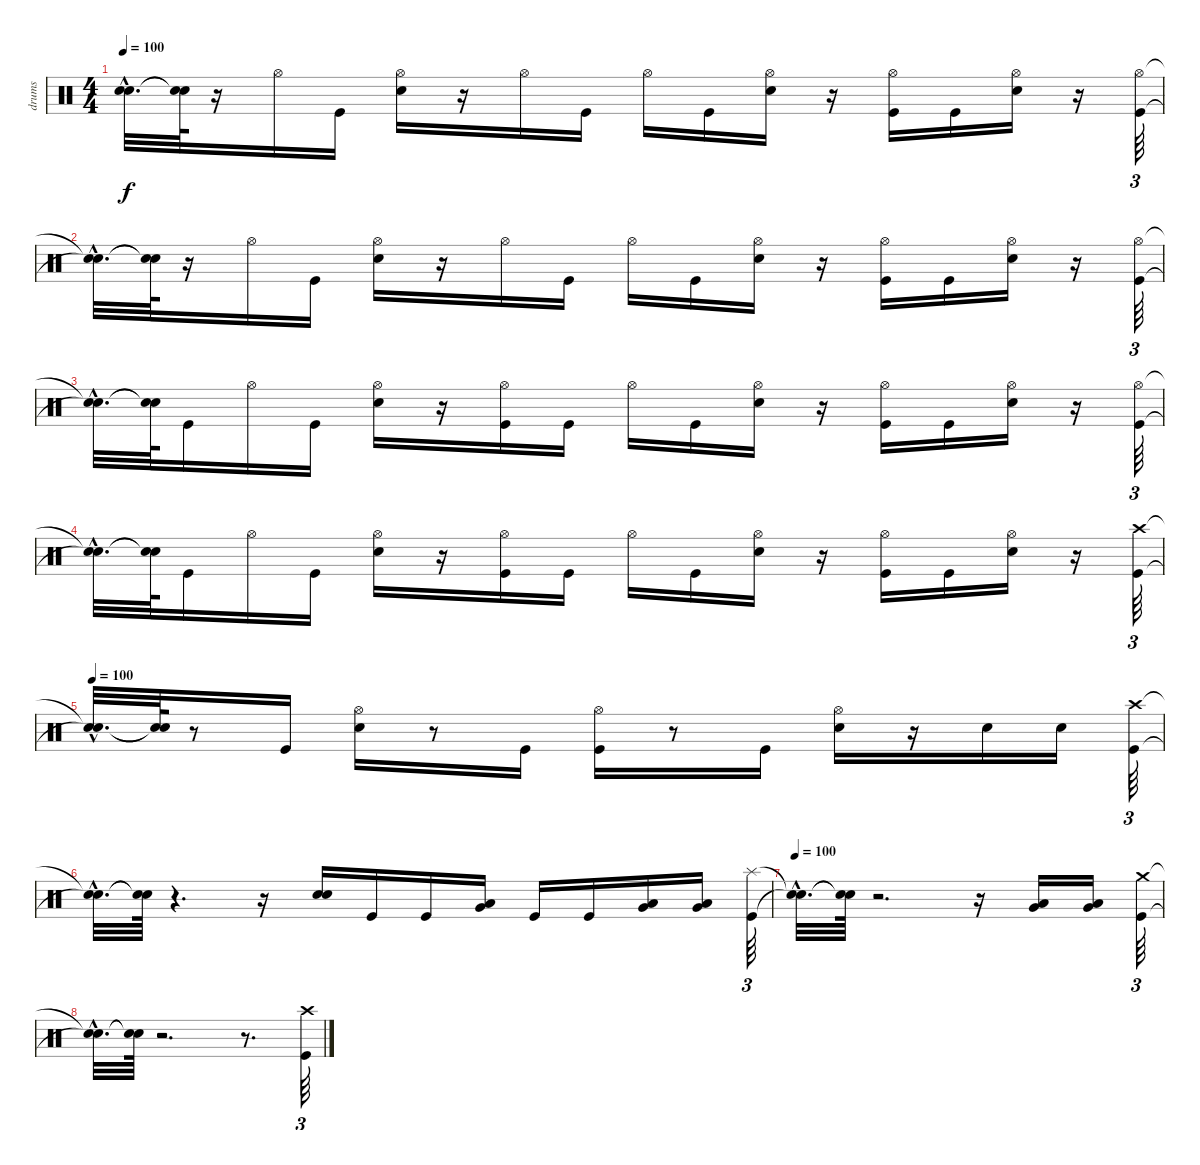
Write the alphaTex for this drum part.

\track ("drums" "drums") {instrument percussion}
\staff {score}
\articulation defaults
\ts (4 4)
\tempo 100
\clef neutral
\ks c
("Snare (hit)"{hac t} "Snare (hit)"{hac t}).32{d dy f} ("Snare (hit)"{t} "Snare (hit)"{t}).64 r.16 "Hi-Hat (open)".16 "Kick (hit)".16 ("Electric Snare (hit)" "Hi-Hat (open)").16 r.16 "Hi-Hat (open)".16 "Kick (hit)".16 "Hi-Hat (open)".16 "Kick (hit)".16 ("Hi-Hat (open)" "Electric Snare (hit)").16 r.16 ("Kick (hit)" "Hi-Hat (open)").16 "Kick (hit)".16 ("Hi-Hat (open)" "Electric Snare (hit)").16 r.16 ("Kick (hit)" "Hi-Hat (open)").64{tu (3 2)} |
("Snare (hit)"{hac t} "Snare (hit)"{hac t}).32{d} ("Snare (hit)"{t} "Snare (hit)"{t}).64 r.16 "Hi-Hat (open)".16 "Kick (hit)".16 ("Hi-Hat (open)" "Electric Snare (hit)").16 r.16 "Hi-Hat (open)".16 "Kick (hit)".16 "Hi-Hat (open)".16 "Kick (hit)".16 ("Hi-Hat (open)" "Electric Snare (hit)").16 r.16 ("Hi-Hat (open)" "Kick (hit)").16 "Kick (hit)".16 ("Hi-Hat (open)" "Electric Snare (hit)").16 r.16 ("Hi-Hat (open)" "Kick (hit)").64{tu (3 2)} |
("Snare (hit)"{hac t} "Snare (hit)"{hac t}).32{d} ("Snare (hit)"{t} "Snare (hit)"{t}).64 "Kick (hit)".16 "Hi-Hat (open)".16 "Kick (hit)".16 ("Electric Snare (hit)" "Hi-Hat (open)").16 r.16 ("Hi-Hat (open)" "Kick (hit)").16 "Kick (hit)".16 "Hi-Hat (open)".16 "Kick (hit)".16 ("Hi-Hat (open)" "Electric Snare (hit)").16 r.16 ("Kick (hit)" "Hi-Hat (open)").16 "Kick (hit)".16 ("Hi-Hat (open)" "Electric Snare (hit)").16 r.16 ("Kick (hit)" "Hi-Hat (open)").64{tu (3 2)} |
("Snare (hit)"{hac t} "Snare (hit)"{hac t}).32{d} ("Snare (hit)"{t} "Snare (hit)"{t}).64 "Kick (hit)".16 "Hi-Hat (open)".16 "Kick (hit)".16 ("Hi-Hat (open)" "Electric Snare (hit)").16 r.16 ("Hi-Hat (open)" "Kick (hit)").16 "Kick (hit)".16 "Hi-Hat (open)".16 "Kick (hit)".16 ("Hi-Hat (open)" "Electric Snare (hit)").16 r.16 ("Hi-Hat (open)" "Kick (hit)").16 "Kick (hit)".16 ("Hi-Hat (open)" "Electric Snare (hit)").16 r.16 ("Crash high (hit)" "Kick (hit)").64{tu (3 2)} |
\tempo 100
("Snare (hit)"{hac t} "Snare (hit)"{hac t}).32{d} ("Snare (hit)"{t} "Snare (hit)"{t}).64 r.8 "Kick (hit)".16 ("Hi-Hat (open)" "Electric Snare (hit)").16 r.8 "Kick (hit)".16 ("Hi-Hat (open)" "Kick (hit)").16 r.8 "Kick (hit)".16 ("Hi-Hat (open)" "Electric Snare (hit)").16 r.16 "Electric Snare (hit)".16 "Electric Snare (hit)".16 ("Crash high (hit)" "Kick (hit)").64{tu (3 2)} |
("Snare (hit)"{hac t} "Snare (hit)"{hac t}).32{d} ("Snare (hit)"{t} "Snare (hit)"{t}).64 r.4{d} r.16 ("Electric Snare (hit)" "Electric Snare (hit)").16 "Kick (hit)".16 "Kick (hit)".16 ("Very Low Tom (hit)" "Low Tom (hit)").16 "Kick (hit)".16 "Kick (hit)".16 ("Low Floor Tom (hit)" "Very Low Tom (hit)").16 ("Low Floor Tom (hit)" "Very Low Tom (hit)").16 ("Splash (hit)" "Kick (hit)").64{tu (3 2)} |
\tempo 100
("Snare (hit)"{hac t} "Snare (hit)"{hac t}).32{d} ("Snare (hit)"{t} "Snare (hit)"{t}).64 r.2{d} r.16 ("Very Low Tom (hit)" "Low Floor Tom (hit)").16 ("Very Low Tom (hit)" "Low Floor Tom (hit)").16 ("Crash medium (hit)" "Kick (hit)").64{tu (3 2)} |
("Snare (hit)"{hac t} "Snare (hit)"{hac t}).32{d} ("Snare (hit)"{t} "Snare (hit)"{t}).64 r.2{d} r.8{d} ("Crash high (hit)" "Kick (hit)").64{tu (3 2)}
